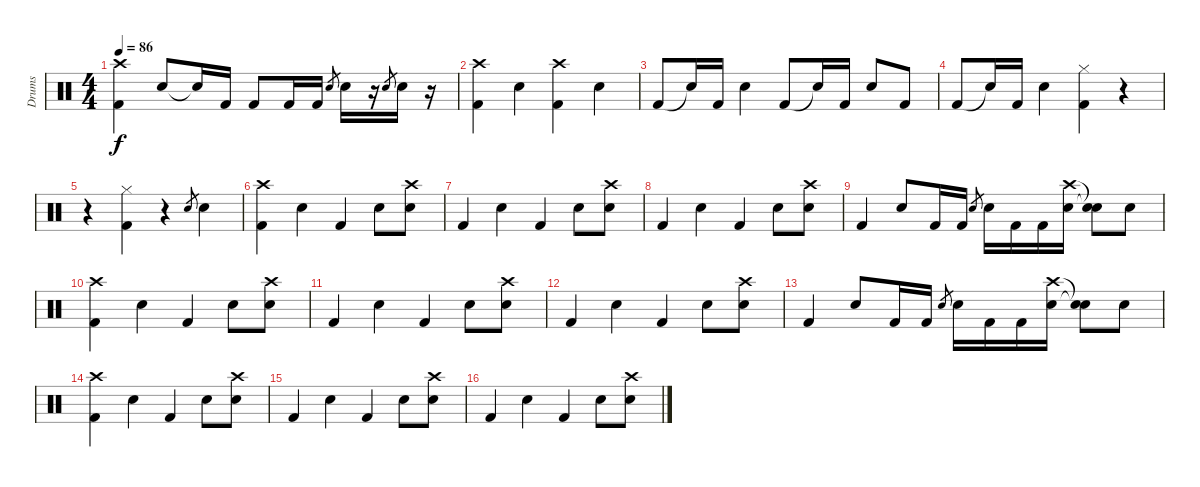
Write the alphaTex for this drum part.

\track ("Drums" "Drums") {instrument percussion}
\staff {score}
\articulation defaults
\ts (4 4)
\tempo 86
\clef neutral
\ks c
("Crash high (hit)" "Kick (hit) 2").4{dy f} "Electric Snare (hit)".8 "Snare (hit)"{t}.16 "Kick (hit) 2".16 "Kick (hit) 2".8 "Kick (hit) 2".16 "Kick (hit) 2".16 "Electric Snare (hit)".8{gr} "Electric Snare (hit)".16 r.16 "Electric Snare (hit)".8{gr} "Electric Snare (hit)".16 r.16 |
("Crash high (hit)" "Kick (hit) 2").4 "Electric Snare (hit)".4 ("Crash high (hit)" "Kick (hit) 2").4 "Electric Snare (hit)".4 |
"Kick (hit) 2".8 "Snare (hit)"{t}.16 "Kick (hit) 2".16 "Electric Snare (hit)".4 "Kick (hit) 2".8 "Snare (hit)"{t}.16 "Kick (hit) 2".16 "Electric Snare (hit)".8 "Kick (hit) 2".8 |
"Kick (hit) 2".8 "Snare (hit)"{t}.16 "Kick (hit) 2".16 "Electric Snare (hit)".4 ("Hi-Hat (closed)" "Kick (hit) 2").4 r.4 |
r.4 ("Hi-Hat (closed)" "Kick (hit) 2").4 r.4 "Electric Snare (hit)".8{gr} "Electric Snare (hit)".4 |
("Crash high (hit)" "Kick (hit) 2").4 "Electric Snare (hit)".4 "Kick (hit) 2".4 "Electric Snare (hit)".8 ("Crash high (hit)" "Electric Snare (hit)").8 |
"Kick (hit) 2".4 "Electric Snare (hit)".4 "Kick (hit) 2".4 "Electric Snare (hit)".8 ("Crash high (hit)" "Electric Snare (hit)").8 |
"Kick (hit) 2".4 "Electric Snare (hit)".4 "Kick (hit) 2".4 "Electric Snare (hit)".8 ("Crash high (hit)" "Electric Snare (hit)").8 |
"Kick (hit) 2".4 "Electric Snare (hit)".8 "Kick (hit) 2".16 "Kick (hit) 2".16 "Electric Snare (hit)".8{gr} "Electric Snare (hit)".16 "Kick (hit) 2".16 "Kick (hit) 2".16 ("Crash high (hit)" "Electric Snare (hit)").16 ("Snare (hit)"{t} "Snare (hit)"{t}).8 "Electric Snare (hit)".8 |
("Crash high (hit)" "Kick (hit) 2").4 "Electric Snare (hit)".4 "Kick (hit) 2".4 "Electric Snare (hit)".8 ("Crash high (hit)" "Electric Snare (hit)").8 |
"Kick (hit) 2".4 "Electric Snare (hit)".4 "Kick (hit) 2".4 "Electric Snare (hit)".8 ("Crash high (hit)" "Electric Snare (hit)").8 |
"Kick (hit) 2".4 "Electric Snare (hit)".4 "Kick (hit) 2".4 "Electric Snare (hit)".8 ("Crash high (hit)" "Electric Snare (hit)").8 |
"Kick (hit) 2".4 "Electric Snare (hit)".8 "Kick (hit) 2".16 "Kick (hit) 2".16 "Electric Snare (hit)".8{gr} "Electric Snare (hit)".16 "Kick (hit) 2".16 "Kick (hit) 2".16 ("Crash high (hit)" "Electric Snare (hit)").16 ("Snare (hit)"{t} "Snare (hit)"{t}).8 "Electric Snare (hit)".8 |
("Crash high (hit)" "Kick (hit) 2").4 "Electric Snare (hit)".4 "Kick (hit) 2".4 "Electric Snare (hit)".8 ("Crash high (hit)" "Electric Snare (hit)").8 |
"Kick (hit) 2".4 "Electric Snare (hit)".4 "Kick (hit) 2".4 "Electric Snare (hit)".8 ("Crash high (hit)" "Electric Snare (hit)").8 |
"Kick (hit) 2".4 "Electric Snare (hit)".4 "Kick (hit) 2".4 "Electric Snare (hit)".8 ("Crash high (hit)" "Electric Snare (hit)").8
